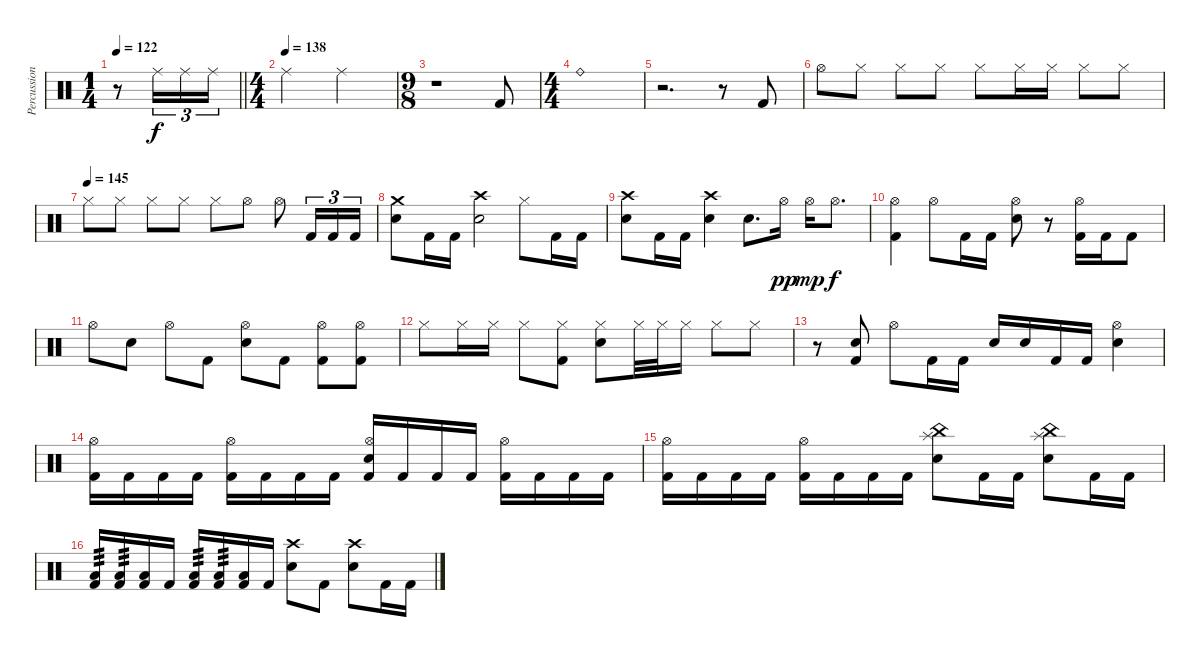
\track ("Percussion" "Percussion") {instrument percussion}
\staff {score}
\articulation defaults
\ts (1 4)
\tempo 122
\clef neutral
\barLineRight lightlight
\ks c
r.8{dy f} "Ride (middle)".16{tu (3 2)} "Ride (middle)".16{tu (3 2)} "Ride (middle)".16{tu (3 2)} |
\ts (4 4)
\section ("" "")
\tempo (138)
"Ride (middle)".2 "Ride (middle)".2 |
\ts (9 8)
r.1 "Kick (hit) 2".8 |
\ts (4 4)
"Ride (bell)".1 |
r.2{d} r.8 "Kick (hit) 2".8 |
"Hi-Hat (open)".8 "Hi-Hat (closed)".8 "Hi-Hat (closed)".8 "Hi-Hat (closed)".8 "Hi-Hat (closed)".8 "Hi-Hat (closed)".16 "Hi-Hat (closed)".16 "Hi-Hat (closed)".8 "Hi-Hat (closed)".8 |
\tempo (145)
"Hi-Hat (closed)".8 "Hi-Hat (closed)".8 "Hi-Hat (closed)".8 "Hi-Hat (closed)".8 "Hi-Hat (closed)".8 "Hi-Hat (open)".8 "Hi-Hat (open)".8 "Kick (hit) 2".16{tu (3 2)} "Kick (hit) 2".16{tu (3 2)} "Kick (hit) 2".16{tu (3 2)} |
("Crash medium (hit)" "Electric Snare (hit)").8 "Kick (hit) 2".16 "Kick (hit) 2".16 ("Crash high (hit)" "Electric Snare (hit)").2 "Hi-Hat (closed)".8 "Kick (hit) 2".16 "Kick (hit) 2".16 |
("Crash high (hit)" "Electric Snare (hit)").8 "Kick (hit) 2".16 "Kick (hit) 2".16 ("Crash high (hit)" "Electric Snare (hit)").4 "Electric Snare (hit)".8{d} "Hi-Hat (open)".16{dy pp} "Hi-Hat (open)".16{dy mp} "Hi-Hat (open)".8{d dy f} |
("Hi-Hat (open)" "Kick (hit) 2").4 "Hi-Hat (open)".8 "Kick (hit) 2".16 "Kick (hit) 2".16 ("Hi-Hat (open)" "Electric Snare (hit)").8 r.8 ("Hi-Hat (open)" "Kick (hit) 2").16 "Kick (hit) 2".16 "Kick (hit) 2".8 |
"Hi-Hat (open)".8 "Electric Snare (hit)".8 "Hi-Hat (open)".8 "Kick (hit) 2".8 ("Hi-Hat (open)" "Electric Snare (hit)").8 "Kick (hit) 2".8 ("Hi-Hat (open)" "Kick (hit) 2").8 ("Hi-Hat (open)" "Kick (hit) 2").8 |
"Hi-Hat (closed)".8 "Hi-Hat (closed)".16 "Hi-Hat (closed)".16 "Hi-Hat (closed)".8 ("Hi-Hat (closed)" "Kick (hit) 2").8 ("Hi-Hat (closed)" "Electric Snare (hit)").8 "Hi-Hat (closed)".32 "Hi-Hat (closed)".32 "Hi-Hat (closed)".16 "Hi-Hat (closed)".8 "Hi-Hat (closed)".8 |
r.8 ("Electric Snare (hit)" "Kick (hit) 2").8 "Hi-Hat (open)".8 "Kick (hit) 2".16 "Kick (hit) 2".16 "Electric Snare (hit)".16 "Electric Snare (hit)".16 "Kick (hit) 2".16 "Kick (hit) 2".16 ("Hi-Hat (open)" "Electric Snare (hit)").4 |
("Hi-Hat (open)" "Kick (hit) 2").16 "Kick (hit) 2".16 "Kick (hit) 2".16 "Kick (hit) 2".16 ("Hi-Hat (open)" "Kick (hit) 2").16 "Kick (hit) 2".16 "Kick (hit) 2".16 "Kick (hit) 2".16 ("Hi-Hat (open)" "Electric Snare (hit)" "Kick (hit) 2").16 "Kick (hit) 2".16 "Kick (hit) 2".16 "Kick (hit) 2".16 ("Hi-Hat (open)" "Kick (hit) 2").16 "Kick (hit) 2".16 "Kick (hit) 2".16 "Kick (hit) 2".16 |
("Hi-Hat (open)" "Kick (hit) 2").16 "Kick (hit) 2".16 "Kick (hit) 2".16 "Kick (hit) 2".16 ("Hi-Hat (open)" "Kick (hit) 2").16 "Kick (hit) 2".16 "Kick (hit) 2".16 "Kick (hit) 2".16 ("China (hit)" "Splash (hit)" "Electric Snare (hit)").8 "Kick (hit) 2".16 "Kick (hit) 2".16 ("China (hit)" "Splash (hit)" "Electric Snare (hit)").8 "Kick (hit) 2".16 "Kick (hit) 2".16 |
("Low Floor Tom (hit)" "Kick (hit) 2").16{tp 3} ("Low Floor Tom (hit)" "Kick (hit) 2").16{tp 3} ("Low Floor Tom (hit)" "Kick (hit) 2").16 "Kick (hit) 2".16 ("Low Floor Tom (hit)" "Kick (hit) 2").16{tp 3} ("Low Floor Tom (hit)" "Kick (hit) 2").16{tp 3} ("Low Floor Tom (hit)" "Kick (hit) 2").16 "Kick (hit) 2".16 ("Crash high (hit)" "Electric Snare (hit)").8 "Kick (hit) 2".8 ("Crash high (hit)" "Electric Snare (hit)").8 "Kick (hit) 2".16 "Kick (hit) 2".16
